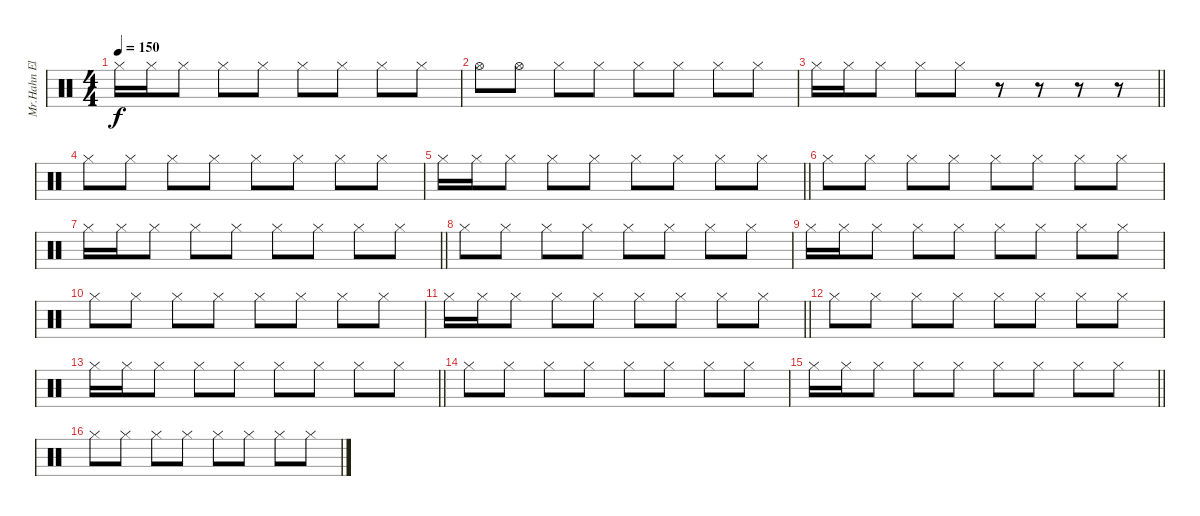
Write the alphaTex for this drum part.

\track ("Mr.Hahn Eletronic Drums" "Mr.Hahn El") {instrument percussion}
\staff {score}
\articulation defaults
\ts (4 4)
\tempo 150
\clef neutral
\ks c "Hi-Hat (closed)".16{dy f} "Hi-Hat (closed)".16 "Hi-Hat (closed)".8 "Hi-Hat (closed)".8 "Hi-Hat (closed)".8 "Hi-Hat (closed)".8 "Hi-Hat (closed)".8 "Hi-Hat (closed)".8 "Hi-Hat (closed)".8
|
"Hi-Hat (open)".8 "Hi-Hat (open)".8 "Hi-Hat (closed)".8 "Hi-Hat (closed)".8 "Hi-Hat (closed)".8 "Hi-Hat (closed)".8 "Hi-Hat (closed)".8 "Hi-Hat (closed)".8 |
\barLineRight lightlight "Hi-Hat (closed)".16 "Hi-Hat (closed)".16 "Hi-Hat (closed)".8 "Hi-Hat (closed)".8 "Hi-Hat (closed)".8
r.8 r.8 r.8 r.8 |
"Hi-Hat (closed)".8 "Hi-Hat (closed)".8 "Hi-Hat (closed)".8 "Hi-Hat (closed)".8 "Hi-Hat (closed)".8 "Hi-Hat (closed)".8 "Hi-Hat (closed)".8 "Hi-Hat (closed)".8 |
\barLineRight lightlight "Hi-Hat (closed)".16 "Hi-Hat (closed)".16 "Hi-Hat (closed)".8 "Hi-Hat (closed)".8 "Hi-Hat (closed)".8 "Hi-Hat (closed)".8 "Hi-Hat (closed)".8 "Hi-Hat (closed)".8 "Hi-Hat (closed)".8
|
"Hi-Hat (closed)".8 "Hi-Hat (closed)".8 "Hi-Hat (closed)".8 "Hi-Hat (closed)".8 "Hi-Hat (closed)".8 "Hi-Hat (closed)".8 "Hi-Hat (closed)".8 "Hi-Hat (closed)".8 |
\barLineRight lightlight "Hi-Hat (closed)".16 "Hi-Hat (closed)".16 "Hi-Hat (closed)".8 "Hi-Hat (closed)".8 "Hi-Hat (closed)".8 "Hi-Hat (closed)".8 "Hi-Hat (closed)".8 "Hi-Hat (closed)".8 "Hi-Hat (closed)".8
|
"Hi-Hat (closed)".8 "Hi-Hat (closed)".8 "Hi-Hat (closed)".8 "Hi-Hat (closed)".8 "Hi-Hat (closed)".8 "Hi-Hat (closed)".8 "Hi-Hat (closed)".8 "Hi-Hat (closed)".8 |
"Hi-Hat (closed)".16 "Hi-Hat (closed)".16 "Hi-Hat (closed)".8 "Hi-Hat (closed)".8 "Hi-Hat (closed)".8 "Hi-Hat (closed)".8 "Hi-Hat (closed)".8 "Hi-Hat (closed)".8 "Hi-Hat (closed)".8 |
"Hi-Hat (closed)".8 "Hi-Hat (closed)".8 "Hi-Hat (closed)".8 "Hi-Hat (closed)".8 "Hi-Hat (closed)".8 "Hi-Hat (closed)".8 "Hi-Hat (closed)".8 "Hi-Hat (closed)".8 |
\barLineRight lightlight "Hi-Hat (closed)".16 "Hi-Hat (closed)".16 "Hi-Hat (closed)".8 "Hi-Hat (closed)".8 "Hi-Hat (closed)".8 "Hi-Hat (closed)".8 "Hi-Hat (closed)".8 "Hi-Hat (closed)".8 "Hi-Hat (closed)".8
|
"Hi-Hat (closed)".8 "Hi-Hat (closed)".8 "Hi-Hat (closed)".8 "Hi-Hat (closed)".8 "Hi-Hat (closed)".8 "Hi-Hat (closed)".8 "Hi-Hat (closed)".8 "Hi-Hat (closed)".8 |
\barLineRight lightlight "Hi-Hat (closed)".16 "Hi-Hat (closed)".16 "Hi-Hat (closed)".8 "Hi-Hat (closed)".8 "Hi-Hat (closed)".8 "Hi-Hat (closed)".8 "Hi-Hat (closed)".8 "Hi-Hat (closed)".8 "Hi-Hat (closed)".8
|
"Hi-Hat (closed)".8 "Hi-Hat (closed)".8 "Hi-Hat (closed)".8 "Hi-Hat (closed)".8 "Hi-Hat (closed)".8 "Hi-Hat (closed)".8 "Hi-Hat (closed)".8 "Hi-Hat (closed)".8 |
\barLineRight lightlight "Hi-Hat (closed)".16 "Hi-Hat (closed)".16 "Hi-Hat (closed)".8 "Hi-Hat (closed)".8 "Hi-Hat (closed)".8 "Hi-Hat (closed)".8 "Hi-Hat (closed)".8 "Hi-Hat (closed)".8 "Hi-Hat (closed)".8
|
"Hi-Hat (closed)".8 "Hi-Hat (closed)".8 "Hi-Hat (closed)".8 "Hi-Hat (closed)".8 "Hi-Hat (closed)".8 "Hi-Hat (closed)".8 "Hi-Hat (closed)".8 "Hi-Hat (closed)".8
